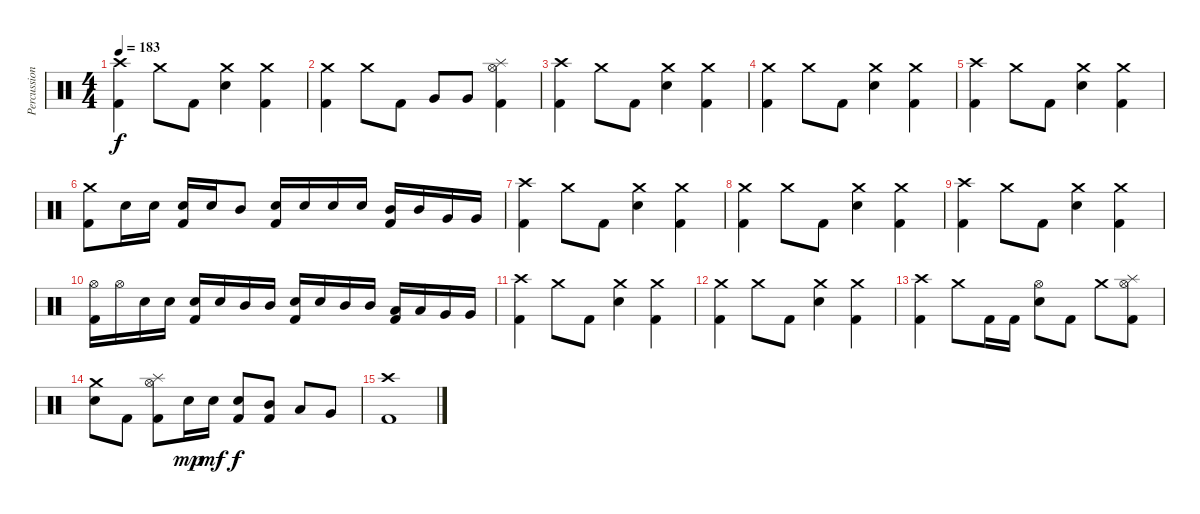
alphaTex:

\track ("Percussion" "Percussion") {instrument percussion}
\staff {score}
\articulation defaults
\ts (4 4)
\tempo 183
\clef neutral
\ks c
("Crash high (hit)" "Kick (hit) 2").4{dy f} "Crash medium (hit)".8 "Kick (hit) 2".8 ("Crash medium (hit)" "Electric Snare (hit)").4 ("Crash medium (hit)" "Kick (hit) 2").4 |
("Crash medium (hit)" "Kick (hit) 2").4 "Crash medium (hit)".8 "Kick (hit) 2".8 "Very Low Tom (hit)".8 "Very Low Tom (hit)".8 ("Splash (hit)" "Hi-Hat (open)" "Kick (hit) 2").4 |
("Crash high (hit)" "Kick (hit) 2").4 "Crash medium (hit)".8 "Kick (hit) 2".8 ("Crash medium (hit)" "Electric Snare (hit)").4 ("Crash medium (hit)" "Kick (hit) 2").4 |
("Crash medium (hit)" "Kick (hit) 2").4 "Crash medium (hit)".8 "Kick (hit) 2".8 ("Crash medium (hit)" "Electric Snare (hit)").4 ("Crash medium (hit)" "Kick (hit) 2").4 |
("Crash high (hit)" "Kick (hit) 2").4 "Crash medium (hit)".8 "Kick (hit) 2".8 ("Crash medium (hit)" "Electric Snare (hit)").4 ("Crash medium (hit)" "Kick (hit) 2").4 |
("Crash medium (hit)" "Kick (hit) 2").8 "Electric Snare (hit)".16 "Electric Snare (hit)".16 ("Electric Snare (hit)" "Kick (hit) 2").16 "Electric Snare (hit)".16 "Mid Tom (hit)".8 ("Electric Snare (hit)" "Kick (hit) 2").16 "Electric Snare (hit)".16 "Electric Snare (hit)".16 "Electric Snare (hit)".16 ("Mid Tom (hit)" "Kick (hit) 2").16 "Mid Tom (hit)".16 "Very Low Tom (hit)".16 "Very Low Tom (hit)".16 |
("Crash high (hit)" "Kick (hit) 2").4 "Crash medium (hit)".8 "Kick (hit) 2".8 ("Crash medium (hit)" "Electric Snare (hit)").4 ("Crash medium (hit)" "Kick (hit) 2").4 |
("Crash medium (hit)" "Kick (hit) 2").4 "Crash medium (hit)".8 "Kick (hit) 2".8 ("Crash medium (hit)" "Electric Snare (hit)").4 ("Crash medium (hit)" "Kick (hit) 2").4 |
("Crash high (hit)" "Kick (hit) 2").4 "Crash medium (hit)".8 "Kick (hit) 2".8 ("Crash medium (hit)" "Electric Snare (hit)").4 ("Crash medium (hit)" "Kick (hit) 2").4 |
("Hi-Hat (open)" "Kick (hit) 2").16 "Hi-Hat (open)".16 "Electric Snare (hit)".16 "Electric Snare (hit)".16 ("Electric Snare (hit)" "Kick (hit) 2").16 "Electric Snare (hit)".16 "Mid Tom (hit)".16 "Mid Tom (hit)".16 ("Electric Snare (hit)" "Kick (hit) 2").16 "Electric Snare (hit)".16 "Mid Tom (hit)".16 "Mid Tom (hit)".16 ("Low Tom (hit)" "Kick (hit) 2").16 "Low Tom (hit)".16 "Very Low Tom (hit)".16 "Very Low Tom (hit)".16 |
("Crash high (hit)" "Kick (hit) 2").4 "Crash medium (hit)".8 "Kick (hit) 2".8 ("Crash medium (hit)" "Electric Snare (hit)").4 ("Crash medium (hit)" "Kick (hit) 2").4 |
("Crash medium (hit)" "Kick (hit) 2").4 "Crash medium (hit)".8 "Kick (hit) 2".8 ("Crash medium (hit)" "Electric Snare (hit)").4 ("Crash medium (hit)" "Kick (hit) 2").4 |
("Crash high (hit)" "Kick (hit) 2").4 "Crash medium (hit)".8 "Kick (hit) 2".16 "Kick (hit) 2".16 ("Hi-Hat (open)" "Electric Snare (hit)").8 "Kick (hit) 2".8 "Crash medium (hit)".8 ("Hi-Hat (open)" "Splash (hit)" "Kick (hit) 2").8 |
("Crash medium (hit)" "Electric Snare (hit)").8 "Kick (hit) 2".8 ("Hi-Hat (open)" "Splash (hit)" "Kick (hit) 2").8 "Electric Snare (hit)".16{dy mp} "Electric Snare (hit)".16{dy mf} ("Electric Snare (hit)" "Kick (hit) 2").8{dy f} ("Mid Tom (hit)" "Kick (hit) 2").8 "Low Tom (hit)".8 "Very Low Tom (hit)".8 |
("Crash high (hit)" "Kick (hit) 2").1
